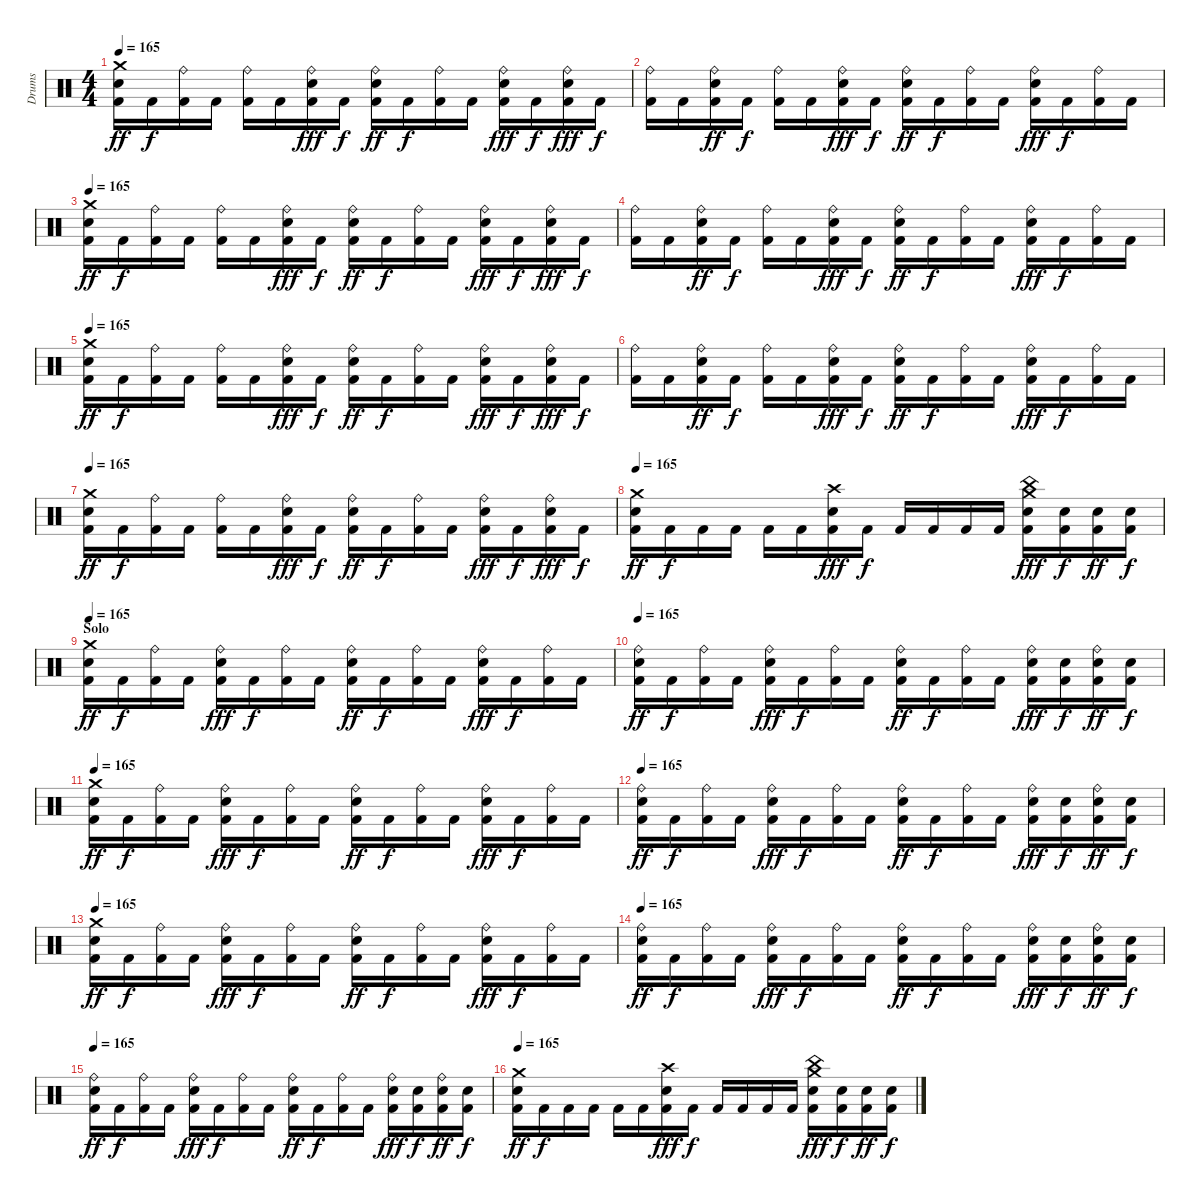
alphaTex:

\track ("Drums" "Drums") {instrument percussion}
\staff {score}
\articulation defaults
\ts (4 4)
\tempo 165
\clef neutral
\ks c
("Crash medium (hit)" "Snare (hit) 2" "Kick (hit) 2").16{dy ff} "Kick (hit) 2".16{dy f} ("Ride (bell)" "Kick (hit) 2").16 "Kick (hit) 2".16 ("Ride (bell)" "Kick (hit) 2").16 "Kick (hit) 2".16 ("Ride (bell)" "Snare (hit) 2" "Kick (hit) 2").16{dy fff} "Kick (hit) 2".16{dy f} ("Ride (bell)" "Snare (hit) 2" "Kick (hit) 2").16{dy ff} "Kick (hit) 2".16{dy f} ("Ride (bell)" "Kick (hit) 2").16 "Kick (hit) 2".16 ("Ride (bell)" "Snare (hit) 2" "Kick (hit) 2").16{dy fff} "Kick (hit) 2".16{dy f} ("Ride (bell)" "Snare (hit) 2" "Kick (hit) 2").16{dy fff} "Kick (hit) 2".16{dy f} |
("Ride (bell)" "Kick (hit) 2").16 "Kick (hit) 2".16 ("Ride (bell)" "Snare (hit) 2" "Kick (hit) 2").16{dy ff} "Kick (hit) 2".16{dy f} ("Ride (bell)" "Kick (hit) 2").16 "Kick (hit) 2".16 ("Ride (bell)" "Snare (hit) 2" "Kick (hit) 2").16{dy fff} "Kick (hit) 2".16{dy f} ("Ride (bell)" "Snare (hit) 2" "Kick (hit) 2").16{dy ff} "Kick (hit) 2".16{dy f} ("Ride (bell)" "Kick (hit) 2").16 "Kick (hit) 2".16 ("Ride (bell)" "Snare (hit) 2" "Kick (hit) 2").16{dy fff} "Kick (hit) 2".16{dy f} ("Ride (bell)" "Kick (hit) 2").16 "Kick (hit) 2".16 |
\tempo 165
("Crash medium (hit)" "Snare (hit) 2" "Kick (hit) 2").16{dy ff} "Kick (hit) 2".16{dy f} ("Ride (bell)" "Kick (hit) 2").16 "Kick (hit) 2".16 ("Ride (bell)" "Kick (hit) 2").16 "Kick (hit) 2".16 ("Ride (bell)" "Snare (hit) 2" "Kick (hit) 2").16{dy fff} "Kick (hit) 2".16{dy f} ("Ride (bell)" "Snare (hit) 2" "Kick (hit) 2").16{dy ff} "Kick (hit) 2".16{dy f} ("Ride (bell)" "Kick (hit) 2").16 "Kick (hit) 2".16 ("Ride (bell)" "Snare (hit) 2" "Kick (hit) 2").16{dy fff} "Kick (hit) 2".16{dy f} ("Ride (bell)" "Snare (hit) 2" "Kick (hit) 2").16{dy fff} "Kick (hit) 2".16{dy f} |
("Ride (bell)" "Kick (hit) 2").16 "Kick (hit) 2".16 ("Ride (bell)" "Snare (hit) 2" "Kick (hit) 2").16{dy ff} "Kick (hit) 2".16{dy f} ("Ride (bell)" "Kick (hit) 2").16 "Kick (hit) 2".16 ("Ride (bell)" "Snare (hit) 2" "Kick (hit) 2").16{dy fff} "Kick (hit) 2".16{dy f} ("Ride (bell)" "Snare (hit) 2" "Kick (hit) 2").16{dy ff} "Kick (hit) 2".16{dy f} ("Ride (bell)" "Kick (hit) 2").16 "Kick (hit) 2".16 ("Ride (bell)" "Snare (hit) 2" "Kick (hit) 2").16{dy fff} "Kick (hit) 2".16{dy f} ("Ride (bell)" "Kick (hit) 2").16 "Kick (hit) 2".16 |
\tempo 165
("Crash medium (hit)" "Snare (hit) 2" "Kick (hit) 2").16{dy ff} "Kick (hit) 2".16{dy f} ("Ride (bell)" "Kick (hit) 2").16 "Kick (hit) 2".16 ("Ride (bell)" "Kick (hit) 2").16 "Kick (hit) 2".16 ("Ride (bell)" "Snare (hit) 2" "Kick (hit) 2").16{dy fff} "Kick (hit) 2".16{dy f} ("Ride (bell)" "Snare (hit) 2" "Kick (hit) 2").16{dy ff} "Kick (hit) 2".16{dy f} ("Ride (bell)" "Kick (hit) 2").16 "Kick (hit) 2".16 ("Ride (bell)" "Snare (hit) 2" "Kick (hit) 2").16{dy fff} "Kick (hit) 2".16{dy f} ("Ride (bell)" "Snare (hit) 2" "Kick (hit) 2").16{dy fff} "Kick (hit) 2".16{dy f} |
("Ride (bell)" "Kick (hit) 2").16 "Kick (hit) 2".16 ("Ride (bell)" "Snare (hit) 2" "Kick (hit) 2").16{dy ff} "Kick (hit) 2".16{dy f} ("Ride (bell)" "Kick (hit) 2").16 "Kick (hit) 2".16 ("Ride (bell)" "Snare (hit) 2" "Kick (hit) 2").16{dy fff} "Kick (hit) 2".16{dy f} ("Ride (bell)" "Snare (hit) 2" "Kick (hit) 2").16{dy ff} "Kick (hit) 2".16{dy f} ("Ride (bell)" "Kick (hit) 2").16 "Kick (hit) 2".16 ("Ride (bell)" "Snare (hit) 2" "Kick (hit) 2").16{dy fff} "Kick (hit) 2".16{dy f} ("Ride (bell)" "Kick (hit) 2").16 "Kick (hit) 2".16 |
\tempo 165
("Crash medium (hit)" "Snare (hit) 2" "Kick (hit) 2").16{dy ff} "Kick (hit) 2".16{dy f} ("Ride (bell)" "Kick (hit) 2").16 "Kick (hit) 2".16 ("Ride (bell)" "Kick (hit) 2").16 "Kick (hit) 2".16 ("Ride (bell)" "Snare (hit) 2" "Kick (hit) 2").16{dy fff} "Kick (hit) 2".16{dy f} ("Ride (bell)" "Snare (hit) 2" "Kick (hit) 2").16{dy ff} "Kick (hit) 2".16{dy f} ("Ride (bell)" "Kick (hit) 2").16 "Kick (hit) 2".16 ("Ride (bell)" "Snare (hit) 2" "Kick (hit) 2").16{dy fff} "Kick (hit) 2".16{dy f} ("Ride (bell)" "Snare (hit) 2" "Kick (hit) 2").16{dy fff} "Kick (hit) 2".16{dy f} |
\tempo 165
("Crash medium (hit)" "Snare (hit) 2" "Kick (hit) 2").16{dy ff} "Kick (hit) 2".16{dy f} "Kick (hit) 2".16 "Kick (hit) 2".16 "Kick (hit) 2".16 "Kick (hit) 2".16 ("Crash high (hit)" "Snare (hit) 2" "Kick (hit) 2").16{dy fff} "Kick (hit) 2".16{dy f} "Kick (hit) 2".16 "Kick (hit) 2".16 "Kick (hit) 2".16 "Kick (hit) 2".16 ("Crash medium (hit)" "China (hit)" "Snare (hit) 2" "Kick (hit) 2").16{dy fff} ("Snare (hit) 2" "Kick (hit) 2").16{dy f} ("Snare (hit) 2" "Kick (hit) 2").16{dy ff} ("Snare (hit) 2" "Kick (hit) 2").16{dy f} |
\section ("" "Solo")
\tempo 165
("Crash medium (hit)" "Snare (hit) 2" "Kick (hit) 2").16{dy ff} "Kick (hit) 2".16{dy f} ("Ride (bell)" "Kick (hit) 2").16 "Kick (hit) 2".16 ("Ride (bell)" "Snare (hit) 2" "Kick (hit) 2").16{dy fff} "Kick (hit) 2".16{dy f} ("Ride (bell)" "Kick (hit) 2").16 "Kick (hit) 2".16 ("Ride (bell)" "Snare (hit) 2" "Kick (hit) 2").16{dy ff} "Kick (hit) 2".16{dy f} ("Ride (bell)" "Kick (hit) 2").16 "Kick (hit) 2".16 ("Ride (bell)" "Snare (hit) 2" "Kick (hit) 2").16{dy fff} "Kick (hit) 2".16{dy f} ("Ride (bell)" "Kick (hit) 2").16 "Kick (hit) 2".16 |
\tempo 165
("Ride (bell)" "Snare (hit) 2" "Kick (hit) 2").16{dy ff} "Kick (hit) 2".16{dy f} ("Ride (bell)" "Kick (hit) 2").16 "Kick (hit) 2".16 ("Ride (bell)" "Snare (hit) 2" "Kick (hit) 2").16{dy fff} "Kick (hit) 2".16{dy f} ("Ride (bell)" "Kick (hit) 2").16 "Kick (hit) 2".16 ("Ride (bell)" "Snare (hit) 2" "Kick (hit) 2").16{dy ff} "Kick (hit) 2".16{dy f} ("Ride (bell)" "Kick (hit) 2").16 "Kick (hit) 2".16 ("Ride (bell)" "Snare (hit) 2" "Kick (hit) 2").16{dy fff} ("Snare (hit) 2" "Kick (hit) 2").16{dy f} ("Ride (bell)" "Snare (hit) 2" "Kick (hit) 2").16{dy ff} ("Snare (hit) 2" "Kick (hit) 2").16{dy f} |
\tempo 165
("Crash medium (hit)" "Snare (hit) 2" "Kick (hit) 2").16{dy ff} "Kick (hit) 2".16{dy f} ("Ride (bell)" "Kick (hit) 2").16 "Kick (hit) 2".16 ("Ride (bell)" "Snare (hit) 2" "Kick (hit) 2").16{dy fff} "Kick (hit) 2".16{dy f} ("Ride (bell)" "Kick (hit) 2").16 "Kick (hit) 2".16 ("Ride (bell)" "Snare (hit) 2" "Kick (hit) 2").16{dy ff} "Kick (hit) 2".16{dy f} ("Ride (bell)" "Kick (hit) 2").16 "Kick (hit) 2".16 ("Ride (bell)" "Snare (hit) 2" "Kick (hit) 2").16{dy fff} "Kick (hit) 2".16{dy f} ("Ride (bell)" "Kick (hit) 2").16 "Kick (hit) 2".16 |
\tempo 165
("Ride (bell)" "Snare (hit) 2" "Kick (hit) 2").16{dy ff} "Kick (hit) 2".16{dy f} ("Ride (bell)" "Kick (hit) 2").16 "Kick (hit) 2".16 ("Ride (bell)" "Snare (hit) 2" "Kick (hit) 2").16{dy fff} "Kick (hit) 2".16{dy f} ("Ride (bell)" "Kick (hit) 2").16 "Kick (hit) 2".16 ("Ride (bell)" "Snare (hit) 2" "Kick (hit) 2").16{dy ff} "Kick (hit) 2".16{dy f} ("Ride (bell)" "Kick (hit) 2").16 "Kick (hit) 2".16 ("Ride (bell)" "Snare (hit) 2" "Kick (hit) 2").16{dy fff} ("Snare (hit) 2" "Kick (hit) 2").16{dy f} ("Ride (bell)" "Snare (hit) 2" "Kick (hit) 2").16{dy ff} ("Snare (hit) 2" "Kick (hit) 2").16{dy f} |
\tempo 165
("Crash medium (hit)" "Snare (hit) 2" "Kick (hit) 2").16{dy ff} "Kick (hit) 2".16{dy f} ("Ride (bell)" "Kick (hit) 2").16 "Kick (hit) 2".16 ("Ride (bell)" "Snare (hit) 2" "Kick (hit) 2").16{dy fff} "Kick (hit) 2".16{dy f} ("Ride (bell)" "Kick (hit) 2").16 "Kick (hit) 2".16 ("Ride (bell)" "Snare (hit) 2" "Kick (hit) 2").16{dy ff} "Kick (hit) 2".16{dy f} ("Ride (bell)" "Kick (hit) 2").16 "Kick (hit) 2".16 ("Ride (bell)" "Snare (hit) 2" "Kick (hit) 2").16{dy fff} "Kick (hit) 2".16{dy f} ("Ride (bell)" "Kick (hit) 2").16 "Kick (hit) 2".16 |
\tempo 165
("Ride (bell)" "Snare (hit) 2" "Kick (hit) 2").16{dy ff} "Kick (hit) 2".16{dy f} ("Ride (bell)" "Kick (hit) 2").16 "Kick (hit) 2".16 ("Ride (bell)" "Snare (hit) 2" "Kick (hit) 2").16{dy fff} "Kick (hit) 2".16{dy f} ("Ride (bell)" "Kick (hit) 2").16 "Kick (hit) 2".16 ("Ride (bell)" "Snare (hit) 2" "Kick (hit) 2").16{dy ff} "Kick (hit) 2".16{dy f} ("Ride (bell)" "Kick (hit) 2").16 "Kick (hit) 2".16 ("Ride (bell)" "Snare (hit) 2" "Kick (hit) 2").16{dy fff} ("Snare (hit) 2" "Kick (hit) 2").16{dy f} ("Ride (bell)" "Snare (hit) 2" "Kick (hit) 2").16{dy ff} ("Snare (hit) 2" "Kick (hit) 2").16{dy f} |
\tempo 165
("Ride (bell)" "Snare (hit) 2" "Kick (hit) 2").16{dy ff} "Kick (hit) 2".16{dy f} ("Ride (bell)" "Kick (hit) 2").16 "Kick (hit) 2".16 ("Ride (bell)" "Snare (hit) 2" "Kick (hit) 2").16{dy fff} "Kick (hit) 2".16{dy f} ("Ride (bell)" "Kick (hit) 2").16 "Kick (hit) 2".16 ("Ride (bell)" "Snare (hit) 2" "Kick (hit) 2").16{dy ff} "Kick (hit) 2".16{dy f} ("Ride (bell)" "Kick (hit) 2").16 "Kick (hit) 2".16 ("Ride (bell)" "Snare (hit) 2" "Kick (hit) 2").16{dy fff} ("Snare (hit) 2" "Kick (hit) 2").16{dy f} ("Ride (bell)" "Snare (hit) 2" "Kick (hit) 2").16{dy ff} ("Snare (hit) 2" "Kick (hit) 2").16{dy f} |
\tempo 165
("Crash medium (hit)" "Snare (hit) 2" "Kick (hit) 2").16{dy ff} "Kick (hit) 2".16{dy f} "Kick (hit) 2".16 "Kick (hit) 2".16 "Kick (hit) 2".16 "Kick (hit) 2".16 ("Crash high (hit)" "Snare (hit) 2" "Kick (hit) 2").16{dy fff} "Kick (hit) 2".16{dy f} "Kick (hit) 2".16 "Kick (hit) 2".16 "Kick (hit) 2".16 "Kick (hit) 2".16 ("Crash medium (hit)" "China (hit)" "Snare (hit) 2" "Kick (hit) 2").16{dy fff} ("Snare (hit) 2" "Kick (hit) 2").16{dy f} ("Snare (hit) 2" "Kick (hit) 2").16{dy ff} ("Snare (hit) 2" "Kick (hit) 2").16{dy f}
